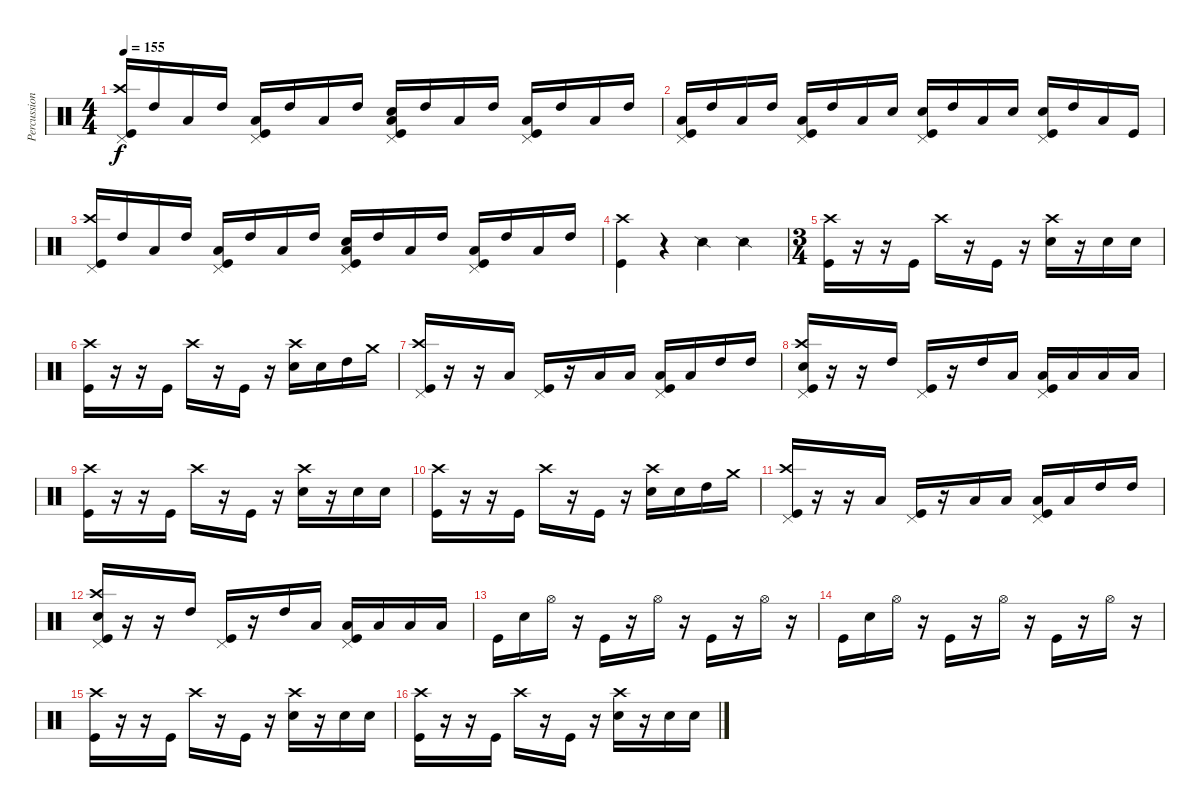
\track ("Percussion" "Percussion") {instrument percussion}
\staff {score}
\articulation defaults
\ts (4 4)
\tempo 155
\clef neutral
\ks c
("Kick (hit)" "Crash high (hit)" "Pedal Hi-Hat (hit)").16{dy f} "High Tom (hit)".16 "Low Floor Tom (hit)".16 "High Tom (hit)".16 ("Low Floor Tom (hit)" "Pedal Hi-Hat (hit)" "Kick (hit)").16 "High Tom (hit)".16 "Low Floor Tom (hit)".16 "High Tom (hit)".16 ("Low Floor Tom (hit)" "Pedal Hi-Hat (hit)" "Kick (hit)" "Snare (hit) 2").16 "High Tom (hit)".16 "Low Floor Tom (hit)".16 "High Tom (hit)".16 ("Low Floor Tom (hit)" "Pedal Hi-Hat (hit)" "Kick (hit)").16 "High Tom (hit)".16 "Low Floor Tom (hit)".16 "High Tom (hit)".16 |
("Kick (hit)" "Low Floor Tom (hit)" "Pedal Hi-Hat (hit)").16 "High Tom (hit)".16 "Low Floor Tom (hit)".16 "High Tom (hit)".16 ("Low Floor Tom (hit)" "Pedal Hi-Hat (hit)" "Kick (hit)").16 "High Tom (hit)".16 "Low Floor Tom (hit)".16 "Snare (hit) 2".16 ("Snare (hit) 2" "Kick (hit)" "Pedal Hi-Hat (hit)").16 "High Tom (hit)".16 "Low Floor Tom (hit)".16 "Snare (hit) 2".16 ("Snare (hit) 2" "Pedal Hi-Hat (hit)" "Kick (hit)").16 "High Tom (hit)".16 "Low Floor Tom (hit)".16 "Kick (hit)".16 |
("Kick (hit)" "Crash high (hit)" "Pedal Hi-Hat (hit)").16 "High Tom (hit)".16 "Low Floor Tom (hit)".16 "High Tom (hit)".16 ("Low Floor Tom (hit)" "Pedal Hi-Hat (hit)" "Kick (hit)").16 "High Tom (hit)".16 "Low Floor Tom (hit)".16 "High Tom (hit)".16 ("Low Floor Tom (hit)" "Pedal Hi-Hat (hit)" "Kick (hit)" "Snare (hit) 2").16 "High Tom (hit)".16 "Low Floor Tom (hit)".16 "High Tom (hit)".16 ("Low Floor Tom (hit)" "Pedal Hi-Hat (hit)" "Kick (hit)").16 "High Tom (hit)".16 "Low Floor Tom (hit)".16 "High Tom (hit)".16 |
("Kick (hit)" "Crash high (hit)").4 r.4 "Snare (side stick) 2".4 "Snare (side stick) 2".4 |
\ts (3 4)
("Crash high (hit)" "Kick (hit)").16 r.16 r.16 "Kick (hit)".16 "Crash high (hit)".16 r.16 "Kick (hit)".16 r.16 ("Crash high (hit)" "Snare (hit) 2").16 r.16 "Snare (hit) 2".16 "Snare (hit) 2".16 |
("Crash high (hit)" "Kick (hit)").16 r.16 r.16 "Kick (hit)".16 "Crash high (hit)".16 r.16 "Kick (hit)".16 r.16 ("Crash high (hit)" "Snare (hit) 2").16 "Snare (hit) 2".16 "High Tom (hit)".16 "Crash medium (hit)".16 |
("Kick (hit)" "Crash high (hit)" "Pedal Hi-Hat (hit)").16 r.16 r.16 "Low Floor Tom (hit)".16 ("Pedal Hi-Hat (hit)" "Kick (hit)").16 r.16 "Low Floor Tom (hit)".16 "Low Floor Tom (hit)".16 ("Low Floor Tom (hit)" "Kick (hit)" "Pedal Hi-Hat (hit)").16 "Low Floor Tom (hit)".16 "High Tom (hit)".16 "High Tom (hit)".16 |
("Snare (hit) 2" "Crash high (hit)" "Kick (hit)" "Pedal Hi-Hat (hit)").16 r.16 r.16 "High Tom (hit)".16 ("Kick (hit)" "Pedal Hi-Hat (hit)").16 r.16 "High Tom (hit)".16 "Low Floor Tom (hit)".16 ("Low Floor Tom (hit)" "Kick (hit)" "Pedal Hi-Hat (hit)").16 "Low Floor Tom (hit)".16 "Low Floor Tom (hit)".16 "Low Floor Tom (hit)".16 |
("Crash high (hit)" "Kick (hit)").16 r.16 r.16 "Kick (hit)".16 "Crash high (hit)".16 r.16 "Kick (hit)".16 r.16 ("Crash high (hit)" "Snare (hit) 2").16 r.16 "Snare (hit) 2".16 "Snare (hit) 2".16 |
("Crash high (hit)" "Kick (hit)").16 r.16 r.16 "Kick (hit)".16 "Crash high (hit)".16 r.16 "Kick (hit)".16 r.16 ("Crash high (hit)" "Snare (hit) 2").16 "Snare (hit) 2".16 "High Tom (hit)".16 "Crash medium (hit)".16 |
("Kick (hit)" "Crash high (hit)" "Pedal Hi-Hat (hit)").16 r.16 r.16 "Low Floor Tom (hit)".16 ("Pedal Hi-Hat (hit)" "Kick (hit)").16 r.16 "Low Floor Tom (hit)".16 "Low Floor Tom (hit)".16 ("Low Floor Tom (hit)" "Kick (hit)" "Pedal Hi-Hat (hit)").16 "Low Floor Tom (hit)".16 "High Tom (hit)".16 "High Tom (hit)".16 |
("Snare (hit) 2" "Crash high (hit)" "Kick (hit)" "Pedal Hi-Hat (hit)").16 r.16 r.16 "High Tom (hit)".16 ("Kick (hit)" "Pedal Hi-Hat (hit)").16 r.16 "High Tom (hit)".16 "Low Floor Tom (hit)".16 ("Low Floor Tom (hit)" "Kick (hit)" "Pedal Hi-Hat (hit)").16 "Low Floor Tom (hit)".16 "Low Floor Tom (hit)".16 "Low Floor Tom (hit)".16 |
"Kick (hit)".16 "Snare (hit) 2".16 "Hi-Hat (open)".16 r.16 "Kick (hit)".16 r.16 "Hi-Hat (open)".16 r.16 "Kick (hit)".16 r.16 "Hi-Hat (open)".16 r.16 |
"Kick (hit)".16 "Snare (hit) 2".16 "Hi-Hat (open)".16 r.16 "Kick (hit)".16 r.16 "Hi-Hat (open)".16 r.16 "Kick (hit)".16 r.16 "Hi-Hat (open)".16 r.16 |
("Crash high (hit)" "Kick (hit)").16 r.16 r.16 "Kick (hit)".16 "Crash high (hit)".16 r.16 "Kick (hit)".16 r.16 ("Crash high (hit)" "Snare (hit) 2").16 r.16 "Snare (hit) 2".16 "Snare (hit) 2".16 |
("Crash high (hit)" "Kick (hit)").16 r.16 r.16 "Kick (hit)".16 "Crash high (hit)".16 r.16 "Kick (hit)".16 r.16 ("Crash high (hit)" "Snare (hit) 2").16 r.16 "Snare (hit) 2".16 "Snare (hit) 2".16
